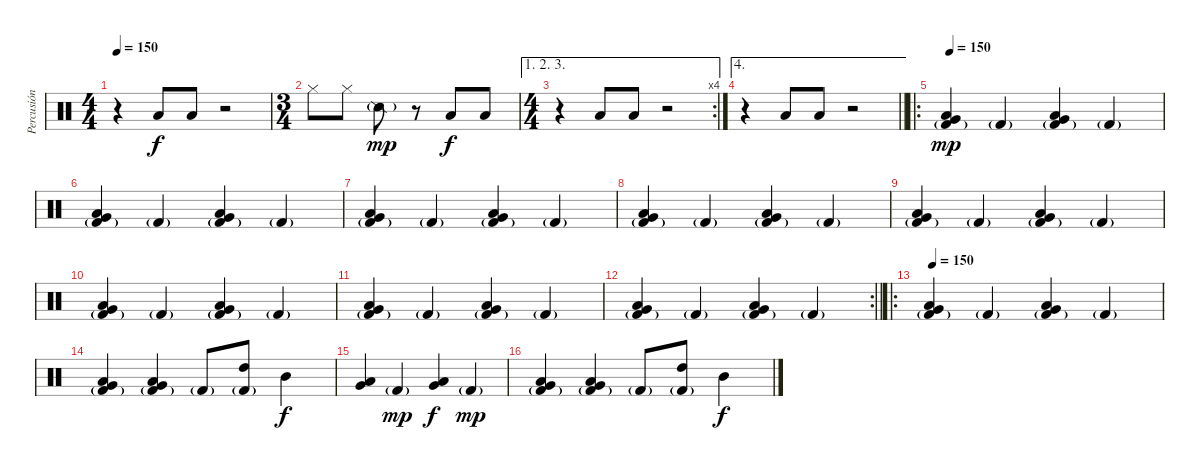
\track ("Percusión" "Percusión") {instrument percussion}
\staff {score}
\articulation defaults
\ts (4 4)
\tempo 150
\clef neutral
\ks c
r.4{dy f} "Low Floor Tom (hit)".8 "Low Floor Tom (hit)".8 r.2 |
\ts (3 4)
"Hi-Hat (closed)".8 "Hi-Hat (closed)".8 "Snare (side stick) 2"{g}.8{dy mp} r.8 "Low Floor Tom (hit)".8{dy f} "Low Floor Tom (hit)".8 |
\ae (1 2 3)
\rc 4
\ts (4 4)
r.4 "Low Floor Tom (hit)".8 "Low Floor Tom (hit)".8 r.2 |
\ae 4
\barLineRight lightlight
r.4 "Low Floor Tom (hit)".8 "Low Floor Tom (hit)".8 r.2 |
\ro
\tempo 150
("Kick (hit) 2"{g} "Very Low Tom (hit)" "Low Floor Tom (hit)").4{dy mp} "Kick (hit) 2"{g}.4 ("Kick (hit) 2"{g} "Very Low Tom (hit)" "Low Tom (hit)").4 "Kick (hit) 2"{g}.4 |
("Kick (hit) 2"{g} "Very Low Tom (hit)" "Low Floor Tom (hit)").4 "Kick (hit) 2"{g}.4 ("Kick (hit) 2"{g} "Very Low Tom (hit)" "Low Tom (hit)").4 "Kick (hit) 2"{g}.4 |
("Kick (hit) 2"{g} "Very Low Tom (hit)" "Low Floor Tom (hit)").4 "Kick (hit) 2"{g}.4 ("Kick (hit) 2"{g} "Very Low Tom (hit)" "Low Tom (hit)").4 "Kick (hit) 2"{g}.4 |
("Kick (hit) 2"{g} "Very Low Tom (hit)" "Low Floor Tom (hit)").4 "Kick (hit) 2"{g}.4 ("Kick (hit) 2"{g} "Very Low Tom (hit)" "Low Tom (hit)").4 "Kick (hit) 2"{g}.4 |
("Kick (hit) 2"{g} "Very Low Tom (hit)" "Low Floor Tom (hit)").4 "Kick (hit) 2"{g}.4 ("Kick (hit) 2"{g} "Very Low Tom (hit)" "Low Tom (hit)").4 "Kick (hit) 2"{g}.4 |
("Kick (hit) 2"{g} "Very Low Tom (hit)" "Low Floor Tom (hit)").4 "Kick (hit) 2"{g}.4 ("Kick (hit) 2"{g} "Very Low Tom (hit)" "Low Tom (hit)").4 "Kick (hit) 2"{g}.4 |
("Kick (hit) 2"{g} "Very Low Tom (hit)" "Low Floor Tom (hit)").4 "Kick (hit) 2"{g}.4 ("Kick (hit) 2"{g} "Very Low Tom (hit)" "Low Tom (hit)").4 "Kick (hit) 2"{g}.4 |
\rc 2
\barLineRight lightlight
("Kick (hit) 2"{g} "Very Low Tom (hit)" "Low Floor Tom (hit)").4 "Kick (hit) 2"{g}.4 ("Kick (hit) 2"{g} "Very Low Tom (hit)" "Low Tom (hit)").4 "Kick (hit) 2"{g}.4 |
\ro
\tempo 150
("Kick (hit) 2"{g} "Very Low Tom (hit)" "Low Floor Tom (hit)").4 "Kick (hit) 2"{g}.4 ("Kick (hit) 2"{g} "Very Low Tom (hit)" "Low Tom (hit)").4 "Kick (hit) 2"{g}.4 |
("Kick (hit) 2"{g} "Very Low Tom (hit)" "Low Floor Tom (hit)").4 ("Kick (hit) 2"{g} "Very Low Tom (hit)" "Low Tom (hit)").4 "Kick (hit) 2"{g}.8 ("Kick (hit) 2"{g} "High Tom (hit)").8 "Mid Tom (hit)".4{dy f} |
("Very Low Tom (hit)" "Low Floor Tom (hit)").4 "Kick (hit) 2"{g}.4{dy mp} ("Very Low Tom (hit)" "Low Tom (hit)").4{dy f} "Kick (hit) 2"{g}.4{dy mp} |
("Kick (hit) 2"{g} "Very Low Tom (hit)" "Low Floor Tom (hit)").4 ("Kick (hit) 2"{g} "Very Low Tom (hit)" "Low Tom (hit)").4 "Kick (hit) 2"{g}.8 ("Kick (hit) 2"{g} "High Tom (hit)").8 "Mid Tom (hit)".4{dy f}
